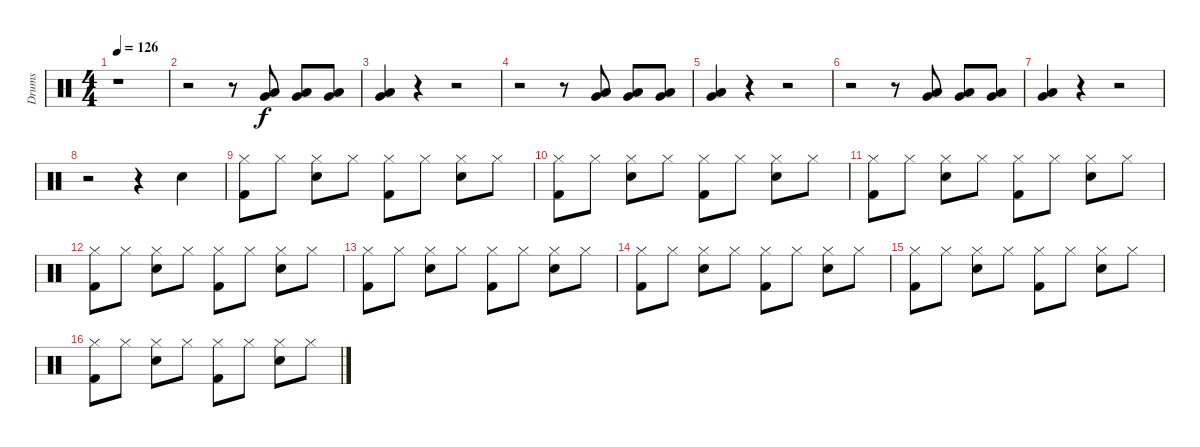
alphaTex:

\track ("Drums" "Drums") {instrument percussion}
\staff {score}
\articulation defaults
\ts (4 4)
\tempo 126
\clef neutral
\ks c
r.1{dy f} |
r.2 r.8 ("Very Low Tom (hit)" "Low Tom (hit)").8 ("Very Low Tom (hit)" "Low Tom (hit)").8 ("Very Low Tom (hit)" "Low Tom (hit)").8 |
("Very Low Tom (hit)" "Low Tom (hit)").4 r.4 r.2 |
r.2 r.8 ("Very Low Tom (hit)" "Low Tom (hit)").8 ("Very Low Tom (hit)" "Low Tom (hit)").8 ("Very Low Tom (hit)" "Low Tom (hit)").8 |
("Very Low Tom (hit)" "Low Tom (hit)").4 r.4 r.2 |
r.2 r.8 ("Very Low Tom (hit)" "Low Tom (hit)").8 ("Very Low Tom (hit)" "Low Tom (hit)").8 ("Very Low Tom (hit)" "Low Tom (hit)").8 |
("Very Low Tom (hit)" "Low Tom (hit)").4 r.4 r.2 |
r.2 r.4 "Snare (hit) 2".4 |
("Kick (hit) 2" "Hi-Hat (closed)").8 "Hi-Hat (closed)".8 ("Snare (hit) 2" "Hi-Hat (closed)").8 "Hi-Hat (closed)".8 ("Kick (hit) 2" "Hi-Hat (closed)").8 "Hi-Hat (closed)".8 ("Snare (hit) 2" "Hi-Hat (closed)").8 "Hi-Hat (closed)".8 |
("Kick (hit) 2" "Hi-Hat (closed)").8 "Hi-Hat (closed)".8 ("Snare (hit) 2" "Hi-Hat (closed)").8 "Hi-Hat (closed)".8 ("Kick (hit) 2" "Hi-Hat (closed)").8 "Hi-Hat (closed)".8 ("Snare (hit) 2" "Hi-Hat (closed)").8 "Hi-Hat (closed)".8 |
("Kick (hit) 2" "Hi-Hat (closed)").8 "Hi-Hat (closed)".8 ("Snare (hit) 2" "Hi-Hat (closed)").8 "Hi-Hat (closed)".8 ("Kick (hit) 2" "Hi-Hat (closed)").8 "Hi-Hat (closed)".8 ("Snare (hit) 2" "Hi-Hat (closed)").8 "Hi-Hat (closed)".8 |
("Kick (hit) 2" "Hi-Hat (closed)").8 "Hi-Hat (closed)".8 ("Snare (hit) 2" "Hi-Hat (closed)").8 "Hi-Hat (closed)".8 ("Kick (hit) 2" "Hi-Hat (closed)").8 "Hi-Hat (closed)".8 ("Snare (hit) 2" "Hi-Hat (closed)").8 "Hi-Hat (closed)".8 |
("Kick (hit) 2" "Hi-Hat (closed)").8 "Hi-Hat (closed)".8 ("Snare (hit) 2" "Hi-Hat (closed)").8 "Hi-Hat (closed)".8 ("Kick (hit) 2" "Hi-Hat (closed)").8 "Hi-Hat (closed)".8 ("Snare (hit) 2" "Hi-Hat (closed)").8 "Hi-Hat (closed)".8 |
("Kick (hit) 2" "Hi-Hat (closed)").8 "Hi-Hat (closed)".8 ("Snare (hit) 2" "Hi-Hat (closed)").8 "Hi-Hat (closed)".8 ("Kick (hit) 2" "Hi-Hat (closed)").8 "Hi-Hat (closed)".8 ("Snare (hit) 2" "Hi-Hat (closed)").8 "Hi-Hat (closed)".8 |
("Kick (hit) 2" "Hi-Hat (closed)").8 "Hi-Hat (closed)".8 ("Snare (hit) 2" "Hi-Hat (closed)").8 "Hi-Hat (closed)".8 ("Kick (hit) 2" "Hi-Hat (closed)").8 "Hi-Hat (closed)".8 ("Snare (hit) 2" "Hi-Hat (closed)").8 "Hi-Hat (closed)".8 |
("Kick (hit) 2" "Hi-Hat (closed)").8 "Hi-Hat (closed)".8 ("Snare (hit) 2" "Hi-Hat (closed)").8 "Hi-Hat (closed)".8 ("Kick (hit) 2" "Hi-Hat (closed)").8 "Hi-Hat (closed)".8 ("Snare (hit) 2" "Hi-Hat (closed)").8 "Hi-Hat (closed)".8
